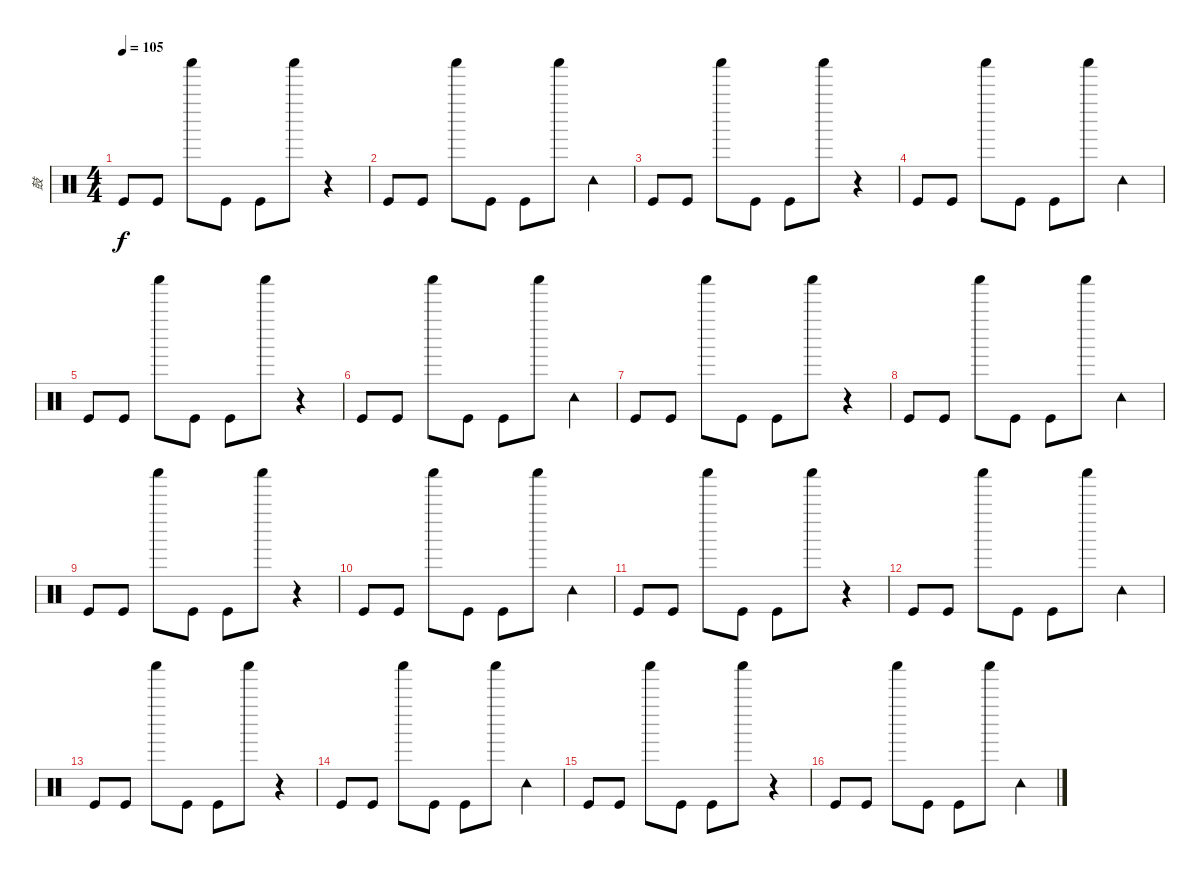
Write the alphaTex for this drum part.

\track ("鼓" "鼓") {instrument percussion}
\staff {score}
\articulation defaults
\ts (4 4)
\tempo 105
\clef neutral
\ks c "Kick (hit)".8{dy f} "Kick (hit)".8 "Shaker (hit)".8 "Kick (hit)".8 "Kick (hit)".8 "Shaker (hit)".8
r.4 |
"Kick (hit)".8 "Kick (hit)".8 "Shaker (hit)".8 "Kick (hit)".8 "Kick (hit)".8 "Shaker (hit)".8 "Tambourine (hit)".4 |
"Kick (hit)".8 "Kick (hit)".8 "Shaker (hit)".8 "Kick (hit)".8 "Kick (hit)".8 "Shaker (hit)".8 r.4 |
"Kick (hit)".8 "Kick (hit)".8 "Shaker (hit)".8 "Kick (hit)".8 "Kick (hit)".8 "Shaker (hit)".8 "Tambourine (hit)".4 |
"Kick (hit)".8 "Kick (hit)".8 "Shaker (hit)".8 "Kick (hit)".8 "Kick (hit)".8 "Shaker (hit)".8 r.4 |
"Kick (hit)".8 "Kick (hit)".8 "Shaker (hit)".8 "Kick (hit)".8 "Kick (hit)".8 "Shaker (hit)".8 "Tambourine (hit)".4 |
"Kick (hit)".8 "Kick (hit)".8 "Shaker (hit)".8 "Kick (hit)".8 "Kick (hit)".8 "Shaker (hit)".8 r.4 |
"Kick (hit)".8 "Kick (hit)".8 "Shaker (hit)".8 "Kick (hit)".8 "Kick (hit)".8 "Shaker (hit)".8 "Tambourine (hit)".4 |
"Kick (hit)".8 "Kick (hit)".8 "Shaker (hit)".8 "Kick (hit)".8 "Kick (hit)".8 "Shaker (hit)".8 r.4 |
"Kick (hit)".8 "Kick (hit)".8 "Shaker (hit)".8 "Kick (hit)".8 "Kick (hit)".8 "Shaker (hit)".8 "Tambourine (hit)".4 |
"Kick (hit)".8 "Kick (hit)".8 "Shaker (hit)".8 "Kick (hit)".8 "Kick (hit)".8 "Shaker (hit)".8 r.4 |
"Kick (hit)".8 "Kick (hit)".8 "Shaker (hit)".8 "Kick (hit)".8 "Kick (hit)".8 "Shaker (hit)".8 "Tambourine (hit)".4 |
"Kick (hit)".8 "Kick (hit)".8 "Shaker (hit)".8 "Kick (hit)".8 "Kick (hit)".8 "Shaker (hit)".8 r.4 |
"Kick (hit)".8 "Kick (hit)".8 "Shaker (hit)".8 "Kick (hit)".8 "Kick (hit)".8 "Shaker (hit)".8 "Tambourine (hit)".4 |
"Kick (hit)".8 "Kick (hit)".8 "Shaker (hit)".8 "Kick (hit)".8 "Kick (hit)".8 "Shaker (hit)".8 r.4 |
"Kick (hit)".8 "Kick (hit)".8 "Shaker (hit)".8 "Kick (hit)".8 "Kick (hit)".8 "Shaker (hit)".8 "Tambourine (hit)".4
